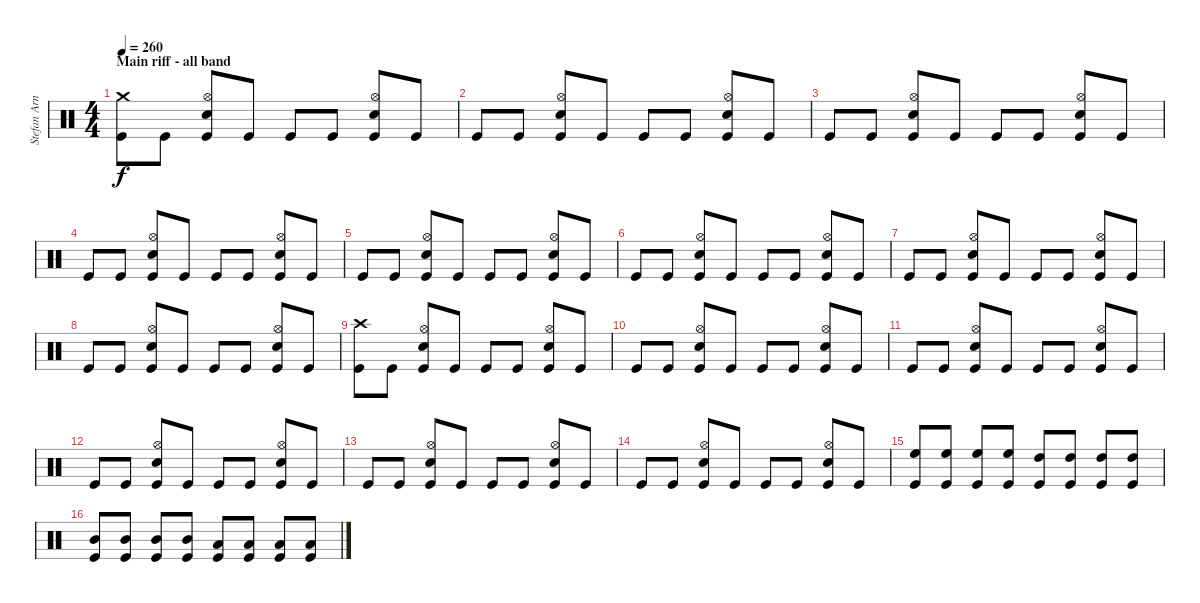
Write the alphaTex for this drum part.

\track ("Stefan Arnold" "Stefan Arn") {instrument percussion}
\staff {score}
\articulation defaults
\ts (4 4)
\section ("" "Main riff - all band")
\tempo 260
\clef neutral
\ks c
("Crash medium (hit)" "Kick (hit)").8{dy f} "Kick (hit)".8 ("Hi-Hat (open)" "Electric Snare (hit)" "Kick (hit)").8 "Kick (hit)".8 "Kick (hit)".8 "Kick (hit)".8 ("Hi-Hat (open)" "Electric Snare (hit)" "Kick (hit)").8 "Kick (hit)".8 |
"Kick (hit)".8 "Kick (hit)".8 ("Hi-Hat (open)" "Electric Snare (hit)" "Kick (hit)").8 "Kick (hit)".8 "Kick (hit)".8 "Kick (hit)".8 ("Hi-Hat (open)" "Electric Snare (hit)" "Kick (hit)").8 "Kick (hit)".8 |
"Kick (hit)".8 "Kick (hit)".8 ("Hi-Hat (open)" "Electric Snare (hit)" "Kick (hit)").8 "Kick (hit)".8 "Kick (hit)".8 "Kick (hit)".8 ("Hi-Hat (open)" "Electric Snare (hit)" "Kick (hit)").8 "Kick (hit)".8 |
"Kick (hit)".8 "Kick (hit)".8 ("Hi-Hat (open)" "Electric Snare (hit)" "Kick (hit)").8 "Kick (hit)".8 "Kick (hit)".8 "Kick (hit)".8 ("Hi-Hat (open)" "Electric Snare (hit)" "Kick (hit)").8 "Kick (hit)".8 |
"Kick (hit)".8 "Kick (hit)".8 ("Hi-Hat (open)" "Electric Snare (hit)" "Kick (hit)").8 "Kick (hit)".8 "Kick (hit)".8 "Kick (hit)".8 ("Hi-Hat (open)" "Electric Snare (hit)" "Kick (hit)").8 "Kick (hit)".8 |
"Kick (hit)".8 "Kick (hit)".8 ("Hi-Hat (open)" "Electric Snare (hit)" "Kick (hit)").8 "Kick (hit)".8 "Kick (hit)".8 "Kick (hit)".8 ("Hi-Hat (open)" "Electric Snare (hit)" "Kick (hit)").8 "Kick (hit)".8 |
"Kick (hit)".8 "Kick (hit)".8 ("Hi-Hat (open)" "Electric Snare (hit)" "Kick (hit)").8 "Kick (hit)".8 "Kick (hit)".8 "Kick (hit)".8 ("Hi-Hat (open)" "Electric Snare (hit)" "Kick (hit)").8 "Kick (hit)".8 |
"Kick (hit)".8 "Kick (hit)".8 ("Hi-Hat (open)" "Electric Snare (hit)" "Kick (hit)").8 "Kick (hit)".8 "Kick (hit)".8 "Kick (hit)".8 ("Hi-Hat (open)" "Electric Snare (hit)" "Kick (hit)").8 "Kick (hit)".8 |
("Crash high (hit)" "Kick (hit)").8 "Kick (hit)".8 ("Hi-Hat (open)" "Electric Snare (hit)" "Kick (hit)").8 "Kick (hit)".8 "Kick (hit)".8 "Kick (hit)".8 ("Hi-Hat (open)" "Electric Snare (hit)" "Kick (hit)").8 "Kick (hit)".8 |
"Kick (hit)".8 "Kick (hit)".8 ("Hi-Hat (open)" "Electric Snare (hit)" "Kick (hit)").8 "Kick (hit)".8 "Kick (hit)".8 "Kick (hit)".8 ("Hi-Hat (open)" "Electric Snare (hit)" "Kick (hit)").8 "Kick (hit)".8 |
"Kick (hit)".8 "Kick (hit)".8 ("Hi-Hat (open)" "Electric Snare (hit)" "Kick (hit)").8 "Kick (hit)".8 "Kick (hit)".8 "Kick (hit)".8 ("Hi-Hat (open)" "Electric Snare (hit)" "Kick (hit)").8 "Kick (hit)".8 |
"Kick (hit)".8 "Kick (hit)".8 ("Hi-Hat (open)" "Electric Snare (hit)" "Kick (hit)").8 "Kick (hit)".8 "Kick (hit)".8 "Kick (hit)".8 ("Hi-Hat (open)" "Electric Snare (hit)" "Kick (hit)").8 "Kick (hit)".8 |
"Kick (hit)".8 "Kick (hit)".8 ("Hi-Hat (open)" "Electric Snare (hit)" "Kick (hit)").8 "Kick (hit)".8 "Kick (hit)".8 "Kick (hit)".8 ("Hi-Hat (open)" "Electric Snare (hit)" "Kick (hit)").8 "Kick (hit)".8 |
"Kick (hit)".8 "Kick (hit)".8 ("Hi-Hat (open)" "Electric Snare (hit)" "Kick (hit)").8 "Kick (hit)".8 "Kick (hit)".8 "Kick (hit)".8 ("Hi-Hat (open)" "Electric Snare (hit)" "Kick (hit)").8 "Kick (hit)".8 |
("High Floor Tom (hit)" "Kick (hit)").8 ("High Floor Tom (hit)" "Kick (hit)").8 ("High Floor Tom (hit)" "Kick (hit)").8 ("High Floor Tom (hit)" "Kick (hit)").8 ("High Tom (hit)" "Kick (hit)").8 ("High Tom (hit)" "Kick (hit)").8 ("High Tom (hit)" "Kick (hit)").8 ("High Tom (hit)" "Kick (hit)").8 |
("Mid Tom (hit)" "Kick (hit)").8 ("Mid Tom (hit)" "Kick (hit)").8 ("Mid Tom (hit)" "Kick (hit)").8 ("Mid Tom (hit)" "Kick (hit)").8 ("Low Tom (hit)" "Kick (hit)").8 ("Low Tom (hit)" "Kick (hit)").8 ("Low Tom (hit)" "Kick (hit)").8 ("Low Tom (hit)" "Kick (hit)").8
